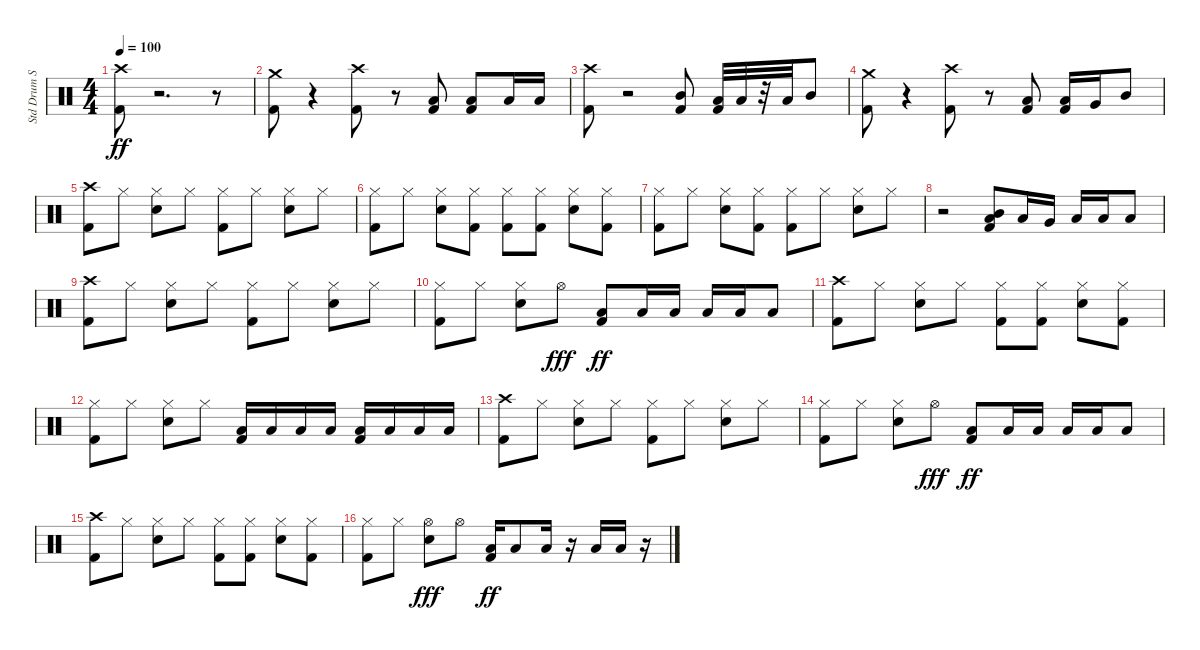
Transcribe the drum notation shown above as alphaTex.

\track ("Std Drum Set" "Std Drum S") {instrument percussion}
\staff {score}
\articulation defaults
\ts (4 4)
\tempo 100
\clef neutral
\ks c
("Crash high (hit)" "Kick (hit) 2").8{dy ff} r.2{d} r.8 |
("Crash medium (hit)" "Kick (hit) 2").8 r.4 ("Kick (hit) 2" "Crash high (hit)").8 r.8 ("Kick (hit) 2" "Low Tom (hit)").8 ("Kick (hit) 2" "Low Tom (hit)").8 "Low Floor Tom (hit)".16 "Low Floor Tom (hit)".16 |
("Kick (hit) 2" "Crash high (hit)").8 r.2 ("Mid Tom (hit)" "Kick (hit) 2").8 ("Low Tom (hit)" "Kick (hit) 2").32 "Low Tom (hit)".32 r.32 "Low Floor Tom (hit)".32 "Mid Tom (hit)".8 |
("Kick (hit) 2" "Crash medium (hit)").8 r.4 ("Kick (hit) 2" "Crash high (hit)").8 r.8 ("Low Floor Tom (hit)" "Kick (hit) 2").8 ("Kick (hit) 2" "Low Floor Tom (hit)").16 "Very Low Tom (hit)".16 "Mid Tom (hit)".8 |
("Kick (hit) 2" "Crash high (hit)").8 "Hi-Hat (closed)".8 ("Hi-Hat (closed)" "Snare (hit) 2").8 "Hi-Hat (closed)".8 ("Hi-Hat (closed)" "Kick (hit) 2").8 "Hi-Hat (closed)".8 ("Snare (hit) 2" "Hi-Hat (closed)").8 "Hi-Hat (closed)".8 |
("Hi-Hat (closed)" "Kick (hit) 2").8 "Hi-Hat (closed)".8 ("Hi-Hat (closed)" "Snare (hit) 2").8 ("Hi-Hat (closed)" "Kick (hit) 2").8 ("Kick (hit) 2" "Hi-Hat (closed)").8 ("Kick (hit) 2" "Hi-Hat (closed)").8 ("Snare (hit) 2" "Hi-Hat (closed)").8 ("Kick (hit) 2" "Hi-Hat (closed)").8 |
("Hi-Hat (closed)" "Kick (hit) 2").8 "Hi-Hat (closed)".8 ("Snare (hit) 2" "Hi-Hat (closed)").8 ("Kick (hit) 2" "Hi-Hat (closed)").8 ("Hi-Hat (closed)" "Kick (hit) 2").8 "Hi-Hat (closed)".8 ("Snare (hit) 2" "Hi-Hat (closed)").8 "Hi-Hat (closed)".8 |
r.2 ("Low Floor Tom (hit)" "Mid Tom (hit)" "Kick (hit) 2").8 "Low Tom (hit)".16 "Very Low Tom (hit)".16 "Low Floor Tom (hit)".16 "Low Floor Tom (hit)".16 "Low Floor Tom (hit)".8 |
("Kick (hit) 2" "Crash high (hit)").8 "Hi-Hat (closed)".8 ("Hi-Hat (closed)" "Snare (hit) 2").8 "Hi-Hat (closed)".8 ("Hi-Hat (closed)" "Kick (hit) 2").8 "Hi-Hat (closed)".8 ("Snare (hit) 2" "Hi-Hat (closed)").8 "Hi-Hat (closed)".8 |
("Hi-Hat (closed)" "Kick (hit) 2").8 "Hi-Hat (closed)".8 ("Snare (hit) 2" "Hi-Hat (closed)").8 "Hi-Hat (open)".8{dy fff} ("Low Tom (hit)" "Kick (hit) 2").8{dy ff} "Low Floor Tom (hit)".16 "Low Floor Tom (hit)".16 "Low Floor Tom (hit)".16 "Low Floor Tom (hit)".16 "Low Floor Tom (hit)".8 |
("Crash high (hit)" "Kick (hit) 2").8 "Hi-Hat (closed)".8 ("Hi-Hat (closed)" "Snare (hit) 2").8 "Hi-Hat (closed)".8 ("Hi-Hat (closed)" "Kick (hit) 2").8 ("Hi-Hat (closed)" "Kick (hit) 2").8 ("Hi-Hat (closed)" "Snare (hit) 2").8 ("Hi-Hat (closed)" "Kick (hit) 2").8 |
("Kick (hit) 2" "Hi-Hat (closed)").8 "Hi-Hat (closed)".8 ("Snare (hit) 2" "Hi-Hat (closed)").8 "Hi-Hat (closed)".8 ("Low Tom (hit)" "Kick (hit) 2").16 "Low Tom (hit)".16 "Low Tom (hit)".16 "Low Tom (hit)".16 ("Low Tom (hit)" "Kick (hit) 2").16 "Low Tom (hit)".16 "Low Tom (hit)".16 "Low Tom (hit)".16 |
("Crash high (hit)" "Kick (hit) 2").8 "Hi-Hat (closed)".8 ("Hi-Hat (closed)" "Snare (hit) 2").8 "Hi-Hat (closed)".8 ("Kick (hit) 2" "Hi-Hat (closed)").8 "Hi-Hat (closed)".8 ("Snare (hit) 2" "Hi-Hat (closed)").8 "Hi-Hat (closed)".8 |
("Kick (hit) 2" "Hi-Hat (closed)").8 "Hi-Hat (closed)".8 ("Hi-Hat (closed)" "Snare (hit) 2").8 "Hi-Hat (open)".8{dy fff} ("Kick (hit) 2" "Low Tom (hit)").8{dy ff} "Low Floor Tom (hit)".16 "Low Floor Tom (hit)".16 "Low Floor Tom (hit)".16 "Low Floor Tom (hit)".16 "Low Floor Tom (hit)".8 |
("Kick (hit) 2" "Crash high (hit)").8 "Hi-Hat (closed)".8 ("Snare (hit) 2" "Hi-Hat (closed)").8 "Hi-Hat (closed)".8 ("Kick (hit) 2" "Hi-Hat (closed)").8 ("Kick (hit) 2" "Hi-Hat (closed)").8 ("Snare (hit) 2" "Hi-Hat (closed)").8 ("Hi-Hat (closed)" "Kick (hit) 2").8 |
("Hi-Hat (closed)" "Kick (hit) 2").8 "Hi-Hat (closed)".8 ("Snare (hit) 2" "Hi-Hat (open)").8{dy fff} "Hi-Hat (open)".8 ("Kick (hit) 2" "Low Tom (hit)").16{dy ff} "Low Tom (hit)".8 "Low Tom (hit)".16 r.16 "Low Floor Tom (hit)".16 "Low Floor Tom (hit)".16 r.16
